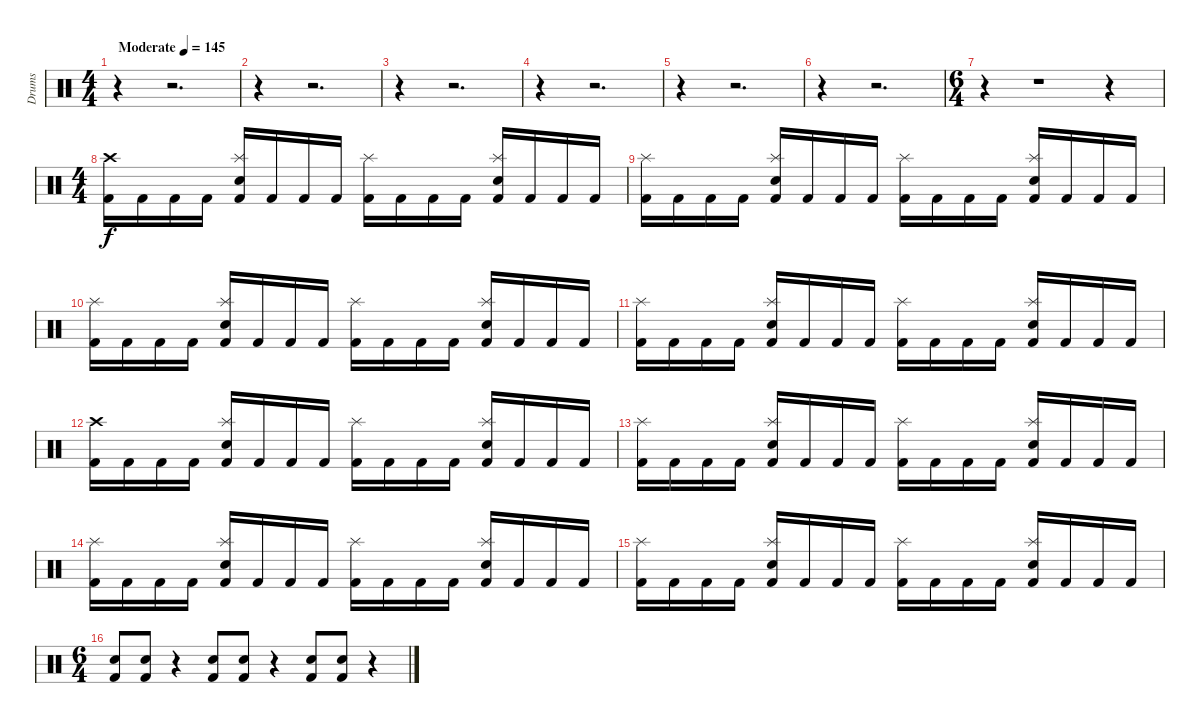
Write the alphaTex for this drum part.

\track ("Drums" "Drums") {instrument percussion}
\staff {score}
\articulation defaults
\ts (4 4)
\tempo (145 "Moderate")
\clef neutral
\ks c
r.4{dy f} r.2{d} |
r.4 r.2{d} |
r.4 r.2{d} |
r.4 r.2{d} |
r.4 r.2{d} |
r.4 r.2{d} |
\ts (6 4)
r.4 r.1 r.4 |
\ts (4 4)
("Crash high (hit)" "Kick (hit) 2").16 "Kick (hit) 2".16 "Kick (hit) 2".16 "Kick (hit) 2".16 ("Splash (hit)" "Snare (hit) 2" "Kick (hit) 2").16 "Kick (hit) 2".16 "Kick (hit) 2".16 "Kick (hit) 2".16 ("Splash (hit)" "Kick (hit) 2").16 "Kick (hit) 2".16 "Kick (hit) 2".16 "Kick (hit) 2".16 ("Splash (hit)" "Snare (hit) 2" "Kick (hit) 2").16 "Kick (hit) 2".16 "Kick (hit) 2".16 "Kick (hit) 2".16 |
("Splash (hit)" "Kick (hit) 2").16 "Kick (hit) 2".16 "Kick (hit) 2".16 "Kick (hit) 2".16 ("Splash (hit)" "Snare (hit) 2" "Kick (hit) 2").16 "Kick (hit) 2".16 "Kick (hit) 2".16 "Kick (hit) 2".16 ("Splash (hit)" "Kick (hit) 2").16 "Kick (hit) 2".16 "Kick (hit) 2".16 "Kick (hit) 2".16 ("Splash (hit)" "Snare (hit) 2" "Kick (hit) 2").16 "Kick (hit) 2".16 "Kick (hit) 2".16 "Kick (hit) 2".16 |
("Splash (hit)" "Kick (hit) 2").16 "Kick (hit) 2".16 "Kick (hit) 2".16 "Kick (hit) 2".16 ("Splash (hit)" "Snare (hit) 2" "Kick (hit) 2").16 "Kick (hit) 2".16 "Kick (hit) 2".16 "Kick (hit) 2".16 ("Splash (hit)" "Kick (hit) 2").16 "Kick (hit) 2".16 "Kick (hit) 2".16 "Kick (hit) 2".16 ("Splash (hit)" "Snare (hit) 2" "Kick (hit) 2").16 "Kick (hit) 2".16 "Kick (hit) 2".16 "Kick (hit) 2".16 |
("Splash (hit)" "Kick (hit) 2").16 "Kick (hit) 2".16 "Kick (hit) 2".16 "Kick (hit) 2".16 ("Splash (hit)" "Snare (hit) 2" "Kick (hit) 2").16 "Kick (hit) 2".16 "Kick (hit) 2".16 "Kick (hit) 2".16 ("Splash (hit)" "Kick (hit) 2").16 "Kick (hit) 2".16 "Kick (hit) 2".16 "Kick (hit) 2".16 ("Splash (hit)" "Snare (hit) 2" "Kick (hit) 2").16 "Kick (hit) 2".16 "Kick (hit) 2".16 "Kick (hit) 2".16 |
("Crash high (hit)" "Kick (hit) 2").16 "Kick (hit) 2".16 "Kick (hit) 2".16 "Kick (hit) 2".16 ("Splash (hit)" "Snare (hit) 2" "Kick (hit) 2").16 "Kick (hit) 2".16 "Kick (hit) 2".16 "Kick (hit) 2".16 ("Splash (hit)" "Kick (hit) 2").16 "Kick (hit) 2".16 "Kick (hit) 2".16 "Kick (hit) 2".16 ("Splash (hit)" "Snare (hit) 2" "Kick (hit) 2").16 "Kick (hit) 2".16 "Kick (hit) 2".16 "Kick (hit) 2".16 |
("Splash (hit)" "Kick (hit) 2").16 "Kick (hit) 2".16 "Kick (hit) 2".16 "Kick (hit) 2".16 ("Splash (hit)" "Snare (hit) 2" "Kick (hit) 2").16 "Kick (hit) 2".16 "Kick (hit) 2".16 "Kick (hit) 2".16 ("Splash (hit)" "Kick (hit) 2").16 "Kick (hit) 2".16 "Kick (hit) 2".16 "Kick (hit) 2".16 ("Splash (hit)" "Snare (hit) 2" "Kick (hit) 2").16 "Kick (hit) 2".16 "Kick (hit) 2".16 "Kick (hit) 2".16 |
("Splash (hit)" "Kick (hit) 2").16 "Kick (hit) 2".16 "Kick (hit) 2".16 "Kick (hit) 2".16 ("Splash (hit)" "Snare (hit) 2" "Kick (hit) 2").16 "Kick (hit) 2".16 "Kick (hit) 2".16 "Kick (hit) 2".16 ("Splash (hit)" "Kick (hit) 2").16 "Kick (hit) 2".16 "Kick (hit) 2".16 "Kick (hit) 2".16 ("Splash (hit)" "Snare (hit) 2" "Kick (hit) 2").16 "Kick (hit) 2".16 "Kick (hit) 2".16 "Kick (hit) 2".16 |
("Splash (hit)" "Kick (hit) 2").16 "Kick (hit) 2".16 "Kick (hit) 2".16 "Kick (hit) 2".16 ("Splash (hit)" "Snare (hit) 2" "Kick (hit) 2").16 "Kick (hit) 2".16 "Kick (hit) 2".16 "Kick (hit) 2".16 ("Splash (hit)" "Kick (hit) 2").16 "Kick (hit) 2".16 "Kick (hit) 2".16 "Kick (hit) 2".16 ("Splash (hit)" "Snare (hit) 2" "Kick (hit) 2").16 "Kick (hit) 2".16 "Kick (hit) 2".16 "Kick (hit) 2".16 |
\ts (6 4)
("Snare (hit) 2" "Kick (hit) 2").8 ("Snare (hit) 2" "Kick (hit) 2").8 r.4 ("Snare (hit) 2" "Kick (hit) 2").8 ("Snare (hit) 2" "Kick (hit) 2").8 r.4 ("Snare (hit) 2" "Kick (hit) 2").8 ("Snare (hit) 2" "Kick (hit) 2").8 r.4
